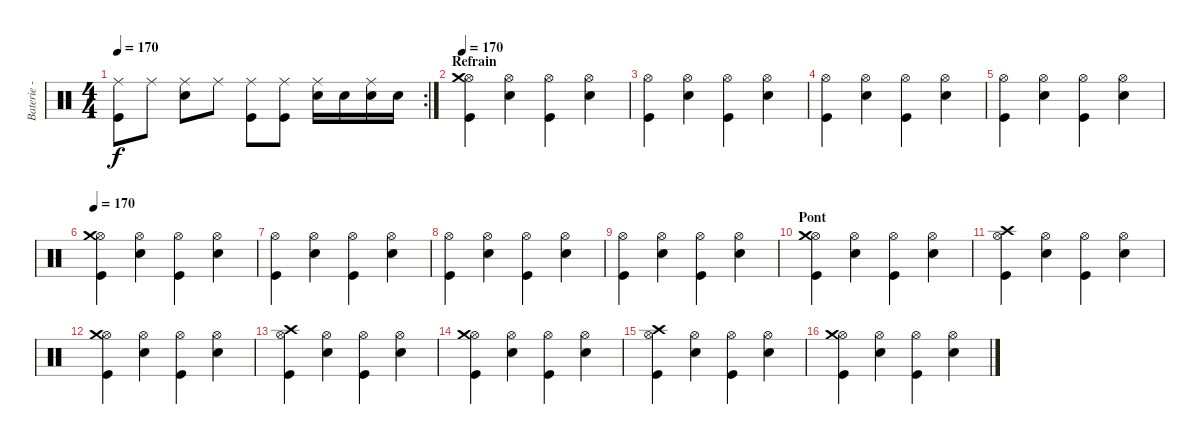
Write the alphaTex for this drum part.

\track ("Baterie - Alex" "Baterie - ") {instrument percussion}
\staff {score}
\articulation defaults
\rc 2
\ts (4 4)
\tempo 170
\clef neutral
\ks c
("Ride (middle)" "Kick (hit)").8{dy f} "Ride (middle)".8 ("Ride (middle)" "Electric Snare (hit)").8 "Ride (middle)".8 ("Ride (middle)" "Kick (hit)").8 ("Ride (middle)" "Kick (hit)").8 ("Ride (middle)" "Electric Snare (hit)").16 "Electric Snare (hit)".16 ("Ride (middle)" "Electric Snare (hit)").16 "Electric Snare (hit)".16 |
\section ("" "Refrain")
\tempo 170
("Hi-Hat (open)" "Crash medium (hit)" "Kick (hit)").4 ("Hi-Hat (open)" "Electric Snare (hit)").4 ("Hi-Hat (open)" "Kick (hit)").4 ("Hi-Hat (open)" "Electric Snare (hit)").4 |
("Hi-Hat (open)" "Kick (hit)").4 ("Hi-Hat (open)" "Electric Snare (hit)").4 ("Hi-Hat (open)" "Kick (hit)").4 ("Hi-Hat (open)" "Electric Snare (hit)").4 |
("Hi-Hat (open)" "Kick (hit)").4 ("Hi-Hat (open)" "Electric Snare (hit)").4 ("Hi-Hat (open)" "Kick (hit)").4 ("Hi-Hat (open)" "Electric Snare (hit)").4 |
("Hi-Hat (open)" "Kick (hit)").4 ("Hi-Hat (open)" "Electric Snare (hit)").4 ("Hi-Hat (open)" "Kick (hit)").4 ("Hi-Hat (open)" "Electric Snare (hit)").4 |
\tempo 170
("Hi-Hat (open)" "Crash medium (hit)" "Kick (hit)").4 ("Hi-Hat (open)" "Electric Snare (hit)").4 ("Hi-Hat (open)" "Kick (hit)").4 ("Hi-Hat (open)" "Electric Snare (hit)").4 |
("Hi-Hat (open)" "Kick (hit)").4 ("Hi-Hat (open)" "Electric Snare (hit)").4 ("Hi-Hat (open)" "Kick (hit)").4 ("Hi-Hat (open)" "Electric Snare (hit)").4 |
("Hi-Hat (open)" "Kick (hit)").4 ("Hi-Hat (open)" "Electric Snare (hit)").4 ("Hi-Hat (open)" "Kick (hit)").4 ("Hi-Hat (open)" "Electric Snare (hit)").4 |
("Hi-Hat (open)" "Kick (hit)").4 ("Hi-Hat (open)" "Electric Snare (hit)").4 ("Hi-Hat (open)" "Kick (hit)").4 ("Hi-Hat (open)" "Electric Snare (hit)").4 |
\section ("" "Pont")
("Hi-Hat (open)" "Crash medium (hit)" "Kick (hit)").4 ("Hi-Hat (open)" "Electric Snare (hit)").4 ("Hi-Hat (open)" "Kick (hit)").4 ("Hi-Hat (open)" "Electric Snare (hit)").4 |
("Hi-Hat (open)" "Crash high (hit)" "Kick (hit)").4 ("Hi-Hat (open)" "Electric Snare (hit)").4 ("Hi-Hat (open)" "Kick (hit)").4 ("Hi-Hat (open)" "Electric Snare (hit)").4 |
("Hi-Hat (open)" "Crash medium (hit)" "Kick (hit)").4 ("Hi-Hat (open)" "Electric Snare (hit)").4 ("Hi-Hat (open)" "Kick (hit)").4 ("Hi-Hat (open)" "Electric Snare (hit)").4 |
("Hi-Hat (open)" "Crash high (hit)" "Kick (hit)").4 ("Hi-Hat (open)" "Electric Snare (hit)").4 ("Hi-Hat (open)" "Kick (hit)").4 ("Hi-Hat (open)" "Electric Snare (hit)").4 |
("Hi-Hat (open)" "Crash medium (hit)" "Kick (hit)").4 ("Hi-Hat (open)" "Electric Snare (hit)").4 ("Hi-Hat (open)" "Kick (hit)").4 ("Hi-Hat (open)" "Electric Snare (hit)").4 |
("Hi-Hat (open)" "Crash high (hit)" "Kick (hit)").4 ("Hi-Hat (open)" "Electric Snare (hit)").4 ("Hi-Hat (open)" "Kick (hit)").4 ("Hi-Hat (open)" "Electric Snare (hit)").4 |
("Hi-Hat (open)" "Crash medium (hit)" "Kick (hit)").4 ("Hi-Hat (open)" "Electric Snare (hit)").4 ("Hi-Hat (open)" "Kick (hit)").4 ("Hi-Hat (open)" "Electric Snare (hit)").4
